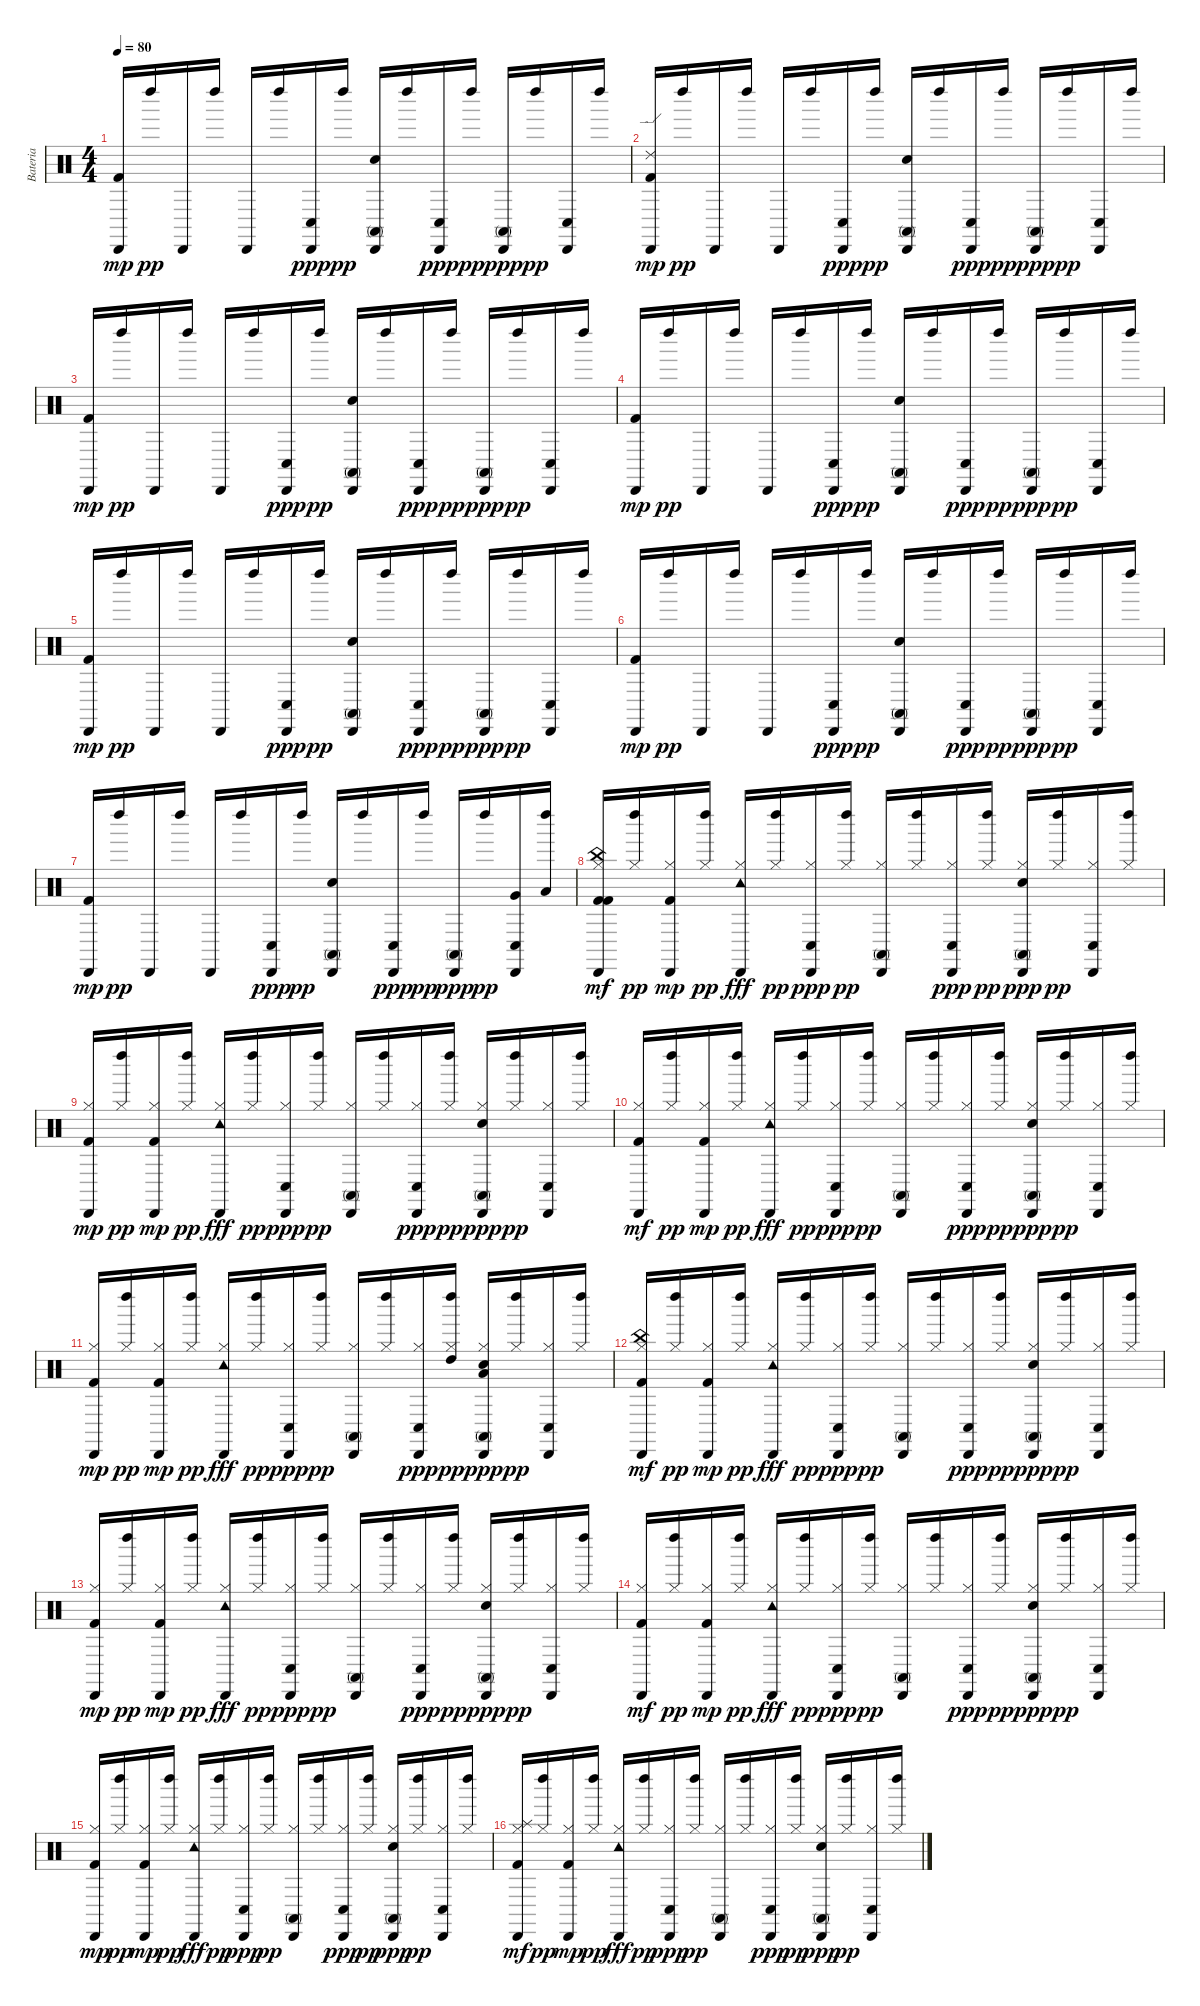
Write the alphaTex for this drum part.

\track ("Bateria" "Bateria") {instrument percussion}
\staff {score}
\articulation defaults
\ts (4 4)
\tempo 80
\clef neutral
\ks c
("Cabasa (hit)" "Kick (hit) 2").16{dy mp} "Left Maraca (hit)".16{dy pp} "Cabasa (hit)".16 "Left Maraca (hit)".16 "Cabasa (hit)".16 "Left Maraca (hit)".16 ("Conga low (hit)" "Cabasa (hit)").16{dy ppp} "Left Maraca (hit)".16{dy pp} ("Hand Clap (hit)" "Conga high (mute)" "Cabasa (hit)").16 "Left Maraca (hit)".16 ("Conga low (hit)" "Cabasa (hit)").16{dy ppp} "Left Maraca (hit)".16{dy pp} ("Conga high (mute)" "Cabasa (hit)").16{dy ppp} "Left Maraca (hit)".16{dy pp} ("Conga low (hit)" "Cabasa (hit)").16 "Left Maraca (hit)".16 |
("Ride (edge) 2" "Cabasa (hit)" "Kick (hit) 2").16{dy mp} "Left Maraca (hit)".16{dy pp} "Cabasa (hit)".16 "Left Maraca (hit)".16 "Cabasa (hit)".16 "Left Maraca (hit)".16 ("Conga low (hit)" "Cabasa (hit)").16{dy ppp} "Left Maraca (hit)".16{dy pp} ("Hand Clap (hit)" "Conga high (mute)" "Cabasa (hit)").16 "Left Maraca (hit)".16 ("Conga low (hit)" "Cabasa (hit)").16{dy ppp} "Left Maraca (hit)".16{dy pp} ("Conga high (mute)" "Cabasa (hit)").16{dy ppp} "Left Maraca (hit)".16{dy pp} ("Conga low (hit)" "Cabasa (hit)").16 "Left Maraca (hit)".16 |
("Cabasa (hit)" "Kick (hit) 2").16{dy mp} "Left Maraca (hit)".16{dy pp} "Cabasa (hit)".16 "Left Maraca (hit)".16 "Cabasa (hit)".16 "Left Maraca (hit)".16 ("Conga low (hit)" "Cabasa (hit)").16{dy ppp} "Left Maraca (hit)".16{dy pp} ("Hand Clap (hit)" "Conga high (mute)" "Cabasa (hit)").16 "Left Maraca (hit)".16 ("Conga low (hit)" "Cabasa (hit)").16{dy ppp} "Left Maraca (hit)".16{dy pp} ("Conga high (mute)" "Cabasa (hit)").16{dy ppp} "Left Maraca (hit)".16{dy pp} ("Conga low (hit)" "Cabasa (hit)").16 "Left Maraca (hit)".16 |
("Cabasa (hit)" "Kick (hit) 2").16{dy mp} "Left Maraca (hit)".16{dy pp} "Cabasa (hit)".16 "Left Maraca (hit)".16 "Cabasa (hit)".16 "Left Maraca (hit)".16 ("Conga low (hit)" "Cabasa (hit)").16{dy ppp} "Left Maraca (hit)".16{dy pp} ("Hand Clap (hit)" "Conga high (mute)" "Cabasa (hit)").16 "Left Maraca (hit)".16 ("Conga low (hit)" "Cabasa (hit)").16{dy ppp} "Left Maraca (hit)".16{dy pp} ("Conga high (mute)" "Cabasa (hit)").16{dy ppp} "Left Maraca (hit)".16{dy pp} ("Conga low (hit)" "Cabasa (hit)").16 "Left Maraca (hit)".16 |
("Cabasa (hit)" "Kick (hit) 2").16{dy mp} "Left Maraca (hit)".16{dy pp} "Cabasa (hit)".16 "Left Maraca (hit)".16 "Cabasa (hit)".16 "Left Maraca (hit)".16 ("Conga low (hit)" "Cabasa (hit)").16{dy ppp} "Left Maraca (hit)".16{dy pp} ("Hand Clap (hit)" "Conga high (mute)" "Cabasa (hit)").16 "Left Maraca (hit)".16 ("Conga low (hit)" "Cabasa (hit)").16{dy ppp} "Left Maraca (hit)".16{dy pp} ("Conga high (mute)" "Cabasa (hit)").16{dy ppp} "Left Maraca (hit)".16{dy pp} ("Conga low (hit)" "Cabasa (hit)").16 "Left Maraca (hit)".16 |
("Cabasa (hit)" "Kick (hit) 2").16{dy mp} "Left Maraca (hit)".16{dy pp} "Cabasa (hit)".16 "Left Maraca (hit)".16 "Cabasa (hit)".16 "Left Maraca (hit)".16 ("Conga low (hit)" "Cabasa (hit)").16{dy ppp} "Left Maraca (hit)".16{dy pp} ("Hand Clap (hit)" "Conga high (mute)" "Cabasa (hit)").16 "Left Maraca (hit)".16 ("Conga low (hit)" "Cabasa (hit)").16{dy ppp} "Left Maraca (hit)".16{dy pp} ("Conga high (mute)" "Cabasa (hit)").16{dy ppp} "Left Maraca (hit)".16{dy pp} ("Conga low (hit)" "Cabasa (hit)").16 "Left Maraca (hit)".16 |
("Cabasa (hit)" "Kick (hit) 2").16{dy mp} "Left Maraca (hit)".16{dy pp} "Cabasa (hit)".16 "Left Maraca (hit)".16 "Cabasa (hit)".16 "Left Maraca (hit)".16 ("Conga low (hit)" "Cabasa (hit)").16{dy ppp} "Left Maraca (hit)".16{dy pp} ("Hand Clap (hit)" "Conga high (mute)" "Cabasa (hit)").16 "Left Maraca (hit)".16 ("Conga low (hit)" "Cabasa (hit)").16{dy ppp} "Left Maraca (hit)".16{dy pp} ("Conga high (mute)" "Cabasa (hit)").16{dy ppp} "Left Maraca (hit)".16{dy pp} ("Conga low (hit)" "Very Low Tom (hit)" "Cabasa (hit)").16 ("Low Floor Tom (hit)" "Left Maraca (hit)").16 |
("Kick (hit) 2" "Hi-Hat (closed)" "China (hit)" "Cabasa (hit)" "Kick (hit) 2").16{dy mf} ("Hi-Hat (closed)" "Left Maraca (hit)").16{dy pp} ("Hi-Hat (closed)" "Cabasa (hit)" "Kick (hit) 2").16{dy mp} ("Hi-Hat (closed)" "Left Maraca (hit)").16{dy pp} ("Hi-Hat (closed)" "Cabasa (hit)" "Tambourine (hit)").16{dy fff} ("Hi-Hat (closed)" "Left Maraca (hit)").16{dy pp} ("Hi-Hat (closed)" "Conga low (hit)" "Cabasa (hit)").16{dy ppp} ("Hi-Hat (closed)" "Left Maraca (hit)").16{dy pp} ("Hi-Hat (closed)" "Conga high (mute)" "Cabasa (hit)").16 ("Hi-Hat (closed)" "Left Maraca (hit)").16 ("Hi-Hat (closed)" "Conga low (hit)" "Cabasa (hit)").16{dy ppp} ("Hi-Hat (closed)" "Left Maraca (hit)").16{dy pp} ("Electric Snare (hit)" "Hi-Hat (closed)" "Conga high (mute)" "Cabasa (hit)").16{dy ppp} ("Hi-Hat (closed)" "Left Maraca (hit)").16{dy pp} ("Hi-Hat (closed)" "Conga low (hit)" "Cabasa (hit)").16 ("Hi-Hat (closed)" "Left Maraca (hit)").16 |
("Hi-Hat (closed)" "Cabasa (hit)" "Kick (hit) 2").16{dy mp} ("Hi-Hat (closed)" "Left Maraca (hit)").16{dy pp} ("Hi-Hat (closed)" "Cabasa (hit)" "Kick (hit) 2").16{dy mp} ("Hi-Hat (closed)" "Left Maraca (hit)").16{dy pp} ("Hi-Hat (closed)" "Cabasa (hit)" "Tambourine (hit)").16{dy fff} ("Hi-Hat (closed)" "Left Maraca (hit)").16{dy pp} ("Hi-Hat (closed)" "Conga low (hit)" "Cabasa (hit)").16{dy ppp} ("Hi-Hat (closed)" "Left Maraca (hit)").16{dy pp} ("Hi-Hat (closed)" "Conga high (mute)" "Cabasa (hit)").16 ("Hi-Hat (closed)" "Left Maraca (hit)").16 ("Hi-Hat (closed)" "Conga low (hit)" "Cabasa (hit)").16{dy ppp} ("Hi-Hat (closed)" "Left Maraca (hit)").16{dy pp} ("Electric Snare (hit)" "Hi-Hat (closed)" "Conga high (mute)" "Cabasa (hit)").16{dy ppp} ("Hi-Hat (closed)" "Left Maraca (hit)").16{dy pp} ("Hi-Hat (closed)" "Conga low (hit)" "Cabasa (hit)").16 ("Hi-Hat (closed)" "Left Maraca (hit)").16 |
("Hi-Hat (closed)" "Cabasa (hit)" "Kick (hit) 2").16{dy mf} ("Hi-Hat (closed)" "Left Maraca (hit)").16{dy pp} ("Hi-Hat (closed)" "Cabasa (hit)" "Kick (hit) 2").16{dy mp} ("Hi-Hat (closed)" "Left Maraca (hit)").16{dy pp} ("Hi-Hat (closed)" "Cabasa (hit)" "Tambourine (hit)").16{dy fff} ("Hi-Hat (closed)" "Left Maraca (hit)").16{dy pp} ("Hi-Hat (closed)" "Conga low (hit)" "Cabasa (hit)").16{dy ppp} ("Hi-Hat (closed)" "Left Maraca (hit)").16{dy pp} ("Hi-Hat (closed)" "Conga high (mute)" "Cabasa (hit)").16 ("Hi-Hat (closed)" "Left Maraca (hit)").16 ("Hi-Hat (closed)" "Conga low (hit)" "Cabasa (hit)").16{dy ppp} ("Hi-Hat (closed)" "Left Maraca (hit)").16{dy pp} ("Electric Snare (hit)" "Hi-Hat (closed)" "Conga high (mute)" "Cabasa (hit)").16{dy ppp} ("Hi-Hat (closed)" "Left Maraca (hit)").16{dy pp} ("Hi-Hat (closed)" "Conga low (hit)" "Cabasa (hit)").16 ("Hi-Hat (closed)" "Left Maraca (hit)").16 |
("Hi-Hat (closed)" "Cabasa (hit)" "Kick (hit) 2").16{dy mp} ("Hi-Hat (closed)" "Left Maraca (hit)").16{dy pp} ("Hi-Hat (closed)" "Cabasa (hit)" "Kick (hit) 2").16{dy mp} ("Hi-Hat (closed)" "Left Maraca (hit)").16{dy pp} ("Hi-Hat (closed)" "Cabasa (hit)" "Tambourine (hit)").16{dy fff} ("Hi-Hat (closed)" "Left Maraca (hit)").16{dy pp} ("Hi-Hat (closed)" "Conga low (hit)" "Cabasa (hit)").16{dy ppp} ("Hi-Hat (closed)" "Left Maraca (hit)").16{dy pp} ("Hi-Hat (closed)" "Conga high (mute)" "Cabasa (hit)").16 ("Hi-Hat (closed)" "Left Maraca (hit)").16 ("Hi-Hat (closed)" "Conga low (hit)" "Cabasa (hit)").16{dy ppp} ("Hi-Hat (closed)" "High Tom (hit)" "Left Maraca (hit)").16{dy pp} ("Electric Snare (hit)" "Hi-Hat (closed)" "Conga high (mute)" "Low Tom (hit)" "Cabasa (hit)").16{dy ppp} ("Hi-Hat (closed)" "Left Maraca (hit)").16{dy pp} ("Hi-Hat (closed)" "Conga low (hit)" "Cabasa (hit)").16 ("Hi-Hat (closed)" "Left Maraca (hit)").16 |
("Hi-Hat (closed)" "China (hit)" "Cabasa (hit)" "Kick (hit) 2").16{dy mf} ("Hi-Hat (closed)" "Left Maraca (hit)").16{dy pp} ("Hi-Hat (closed)" "Cabasa (hit)" "Kick (hit) 2").16{dy mp} ("Hi-Hat (closed)" "Left Maraca (hit)").16{dy pp} ("Hi-Hat (closed)" "Cabasa (hit)" "Tambourine (hit)").16{dy fff} ("Hi-Hat (closed)" "Left Maraca (hit)").16{dy pp} ("Hi-Hat (closed)" "Conga low (hit)" "Cabasa (hit)").16{dy ppp} ("Hi-Hat (closed)" "Left Maraca (hit)").16{dy pp} ("Hi-Hat (closed)" "Conga high (mute)" "Cabasa (hit)").16 ("Hi-Hat (closed)" "Left Maraca (hit)").16 ("Hi-Hat (closed)" "Conga low (hit)" "Cabasa (hit)").16{dy ppp} ("Hi-Hat (closed)" "Left Maraca (hit)").16{dy pp} ("Electric Snare (hit)" "Hi-Hat (closed)" "Conga high (mute)" "Cabasa (hit)").16{dy ppp} ("Hi-Hat (closed)" "Left Maraca (hit)").16{dy pp} ("Hi-Hat (closed)" "Conga low (hit)" "Cabasa (hit)").16 ("Hi-Hat (closed)" "Left Maraca (hit)").16 |
("Hi-Hat (closed)" "Cabasa (hit)" "Kick (hit) 2").16{dy mp} ("Hi-Hat (closed)" "Left Maraca (hit)").16{dy pp} ("Hi-Hat (closed)" "Cabasa (hit)" "Kick (hit) 2").16{dy mp} ("Hi-Hat (closed)" "Left Maraca (hit)").16{dy pp} ("Hi-Hat (closed)" "Cabasa (hit)" "Tambourine (hit)").16{dy fff} ("Hi-Hat (closed)" "Left Maraca (hit)").16{dy pp} ("Hi-Hat (closed)" "Conga low (hit)" "Cabasa (hit)").16{dy ppp} ("Hi-Hat (closed)" "Left Maraca (hit)").16{dy pp} ("Hi-Hat (closed)" "Conga high (mute)" "Cabasa (hit)").16 ("Hi-Hat (closed)" "Left Maraca (hit)").16 ("Hi-Hat (closed)" "Conga low (hit)" "Cabasa (hit)").16{dy ppp} ("Hi-Hat (closed)" "Left Maraca (hit)").16{dy pp} ("Electric Snare (hit)" "Hi-Hat (closed)" "Conga high (mute)" "Cabasa (hit)").16{dy ppp} ("Hi-Hat (closed)" "Left Maraca (hit)").16{dy pp} ("Hi-Hat (closed)" "Conga low (hit)" "Cabasa (hit)").16 ("Hi-Hat (closed)" "Left Maraca (hit)").16 |
("Hi-Hat (closed)" "Cabasa (hit)" "Kick (hit) 2").16{dy mf} ("Hi-Hat (closed)" "Left Maraca (hit)").16{dy pp} ("Hi-Hat (closed)" "Cabasa (hit)" "Kick (hit) 2").16{dy mp} ("Hi-Hat (closed)" "Left Maraca (hit)").16{dy pp} ("Hi-Hat (closed)" "Cabasa (hit)" "Tambourine (hit)").16{dy fff} ("Hi-Hat (closed)" "Left Maraca (hit)").16{dy pp} ("Hi-Hat (closed)" "Conga low (hit)" "Cabasa (hit)").16{dy ppp} ("Hi-Hat (closed)" "Left Maraca (hit)").16{dy pp} ("Hi-Hat (closed)" "Conga high (mute)" "Cabasa (hit)").16 ("Hi-Hat (closed)" "Left Maraca (hit)").16 ("Hi-Hat (closed)" "Conga low (hit)" "Cabasa (hit)").16{dy ppp} ("Hi-Hat (closed)" "Left Maraca (hit)").16{dy pp} ("Electric Snare (hit)" "Hi-Hat (closed)" "Conga high (mute)" "Cabasa (hit)").16{dy ppp} ("Hi-Hat (closed)" "Left Maraca (hit)").16{dy pp} ("Hi-Hat (closed)" "Conga low (hit)" "Cabasa (hit)").16 ("Hi-Hat (closed)" "Left Maraca (hit)").16 |
("Hi-Hat (closed)" "Cabasa (hit)" "Kick (hit) 2").16{dy mp} ("Hi-Hat (closed)" "Left Maraca (hit)").16{dy pp} ("Hi-Hat (closed)" "Cabasa (hit)" "Kick (hit) 2").16{dy mp} ("Hi-Hat (closed)" "Left Maraca (hit)").16{dy pp} ("Hi-Hat (closed)" "Cabasa (hit)" "Tambourine (hit)").16{dy fff} ("Hi-Hat (closed)" "Left Maraca (hit)").16{dy pp} ("Hi-Hat (closed)" "Conga low (hit)" "Cabasa (hit)").16{dy ppp} ("Hi-Hat (closed)" "Left Maraca (hit)").16{dy pp} ("Hi-Hat (closed)" "Conga high (mute)" "Cabasa (hit)").16 ("Hi-Hat (closed)" "Left Maraca (hit)").16 ("Hi-Hat (closed)" "Conga low (hit)" "Cabasa (hit)").16{dy ppp} ("Hi-Hat (closed)" "Left Maraca (hit)").16{dy pp} ("Electric Snare (hit)" "Hi-Hat (closed)" "Conga high (mute)" "Cabasa (hit)").16{dy ppp} ("Hi-Hat (closed)" "Left Maraca (hit)").16{dy pp} ("Hi-Hat (closed)" "Conga low (hit)" "Cabasa (hit)").16 ("Hi-Hat (closed)" "Left Maraca (hit)").16 |
("Hi-Hat (closed)" "Cabasa (hit)" "Kick (hit) 2" "Splash (hit)").16{dy mf} ("Hi-Hat (closed)" "Left Maraca (hit)").16{dy pp} ("Hi-Hat (closed)" "Cabasa (hit)" "Kick (hit) 2").16{dy mp} ("Hi-Hat (closed)" "Left Maraca (hit)").16{dy pp} ("Hi-Hat (closed)" "Cabasa (hit)" "Tambourine (hit)").16{dy fff} ("Hi-Hat (closed)" "Left Maraca (hit)").16{dy pp} ("Hi-Hat (closed)" "Conga low (hit)" "Cabasa (hit)").16{dy ppp} ("Hi-Hat (closed)" "Left Maraca (hit)").16{dy pp} ("Hi-Hat (closed)" "Conga high (mute)" "Cabasa (hit)").16 ("Hi-Hat (closed)" "Left Maraca (hit)").16 ("Hi-Hat (closed)" "Conga low (hit)" "Cabasa (hit)").16{dy ppp} ("Hi-Hat (closed)" "Left Maraca (hit)").16{dy pp} ("Electric Snare (hit)" "Hi-Hat (closed)" "Conga high (mute)" "Cabasa (hit)").16{dy ppp} ("Hi-Hat (closed)" "Left Maraca (hit)").16{dy pp} ("Hi-Hat (closed)" "Conga low (hit)" "Cabasa (hit)").16 ("Hi-Hat (closed)" "Left Maraca (hit)").16
